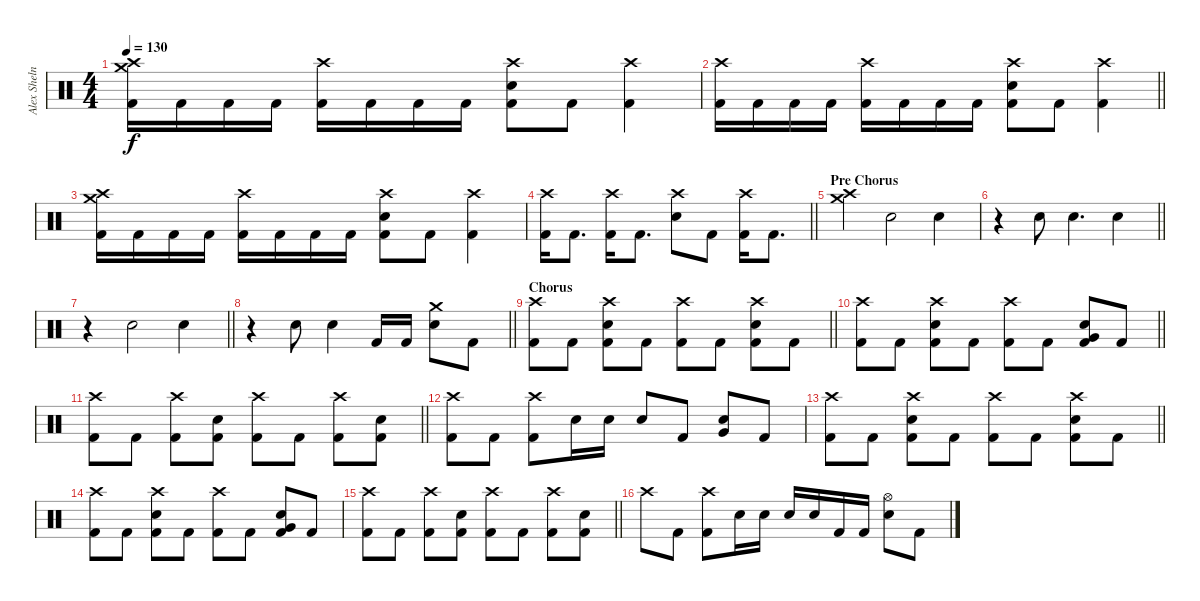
\track ("Alex Shelnutt [Drums]" "Alex Sheln") {instrument percussion}
\staff {score}
\articulation defaults
\ts (4 4)
\tempo 130
\clef neutral
\ks c
("Crash high (hit)" "Crash medium (hit)" "Kick (hit) 2").16{dy f} "Kick (hit) 2".16 "Kick (hit) 2".16 "Kick (hit) 2".16 ("Crash high (hit)" "Kick (hit) 2").16 "Kick (hit) 2".16 "Kick (hit) 2".16 "Kick (hit) 2".16 ("Crash high (hit)" "Electric Snare (hit)" "Kick (hit) 2").8 "Kick (hit) 2".8 ("Crash high (hit)" "Kick (hit) 2").4 |
\barLineRight lightlight
("Crash high (hit)" "Kick (hit) 2").16 "Kick (hit) 2".16 "Kick (hit) 2".16 "Kick (hit) 2".16 ("Crash high (hit)" "Kick (hit) 2").16 "Kick (hit) 2".16 "Kick (hit) 2".16 "Kick (hit) 2".16 ("Crash high (hit)" "Electric Snare (hit)" "Kick (hit) 2").8 "Kick (hit) 2".8 ("Crash high (hit)" "Kick (hit) 2").4 |
("Crash high (hit)" "Crash medium (hit)" "Kick (hit) 2").16 "Kick (hit) 2".16 "Kick (hit) 2".16 "Kick (hit) 2".16 ("Crash high (hit)" "Kick (hit) 2").16 "Kick (hit) 2".16 "Kick (hit) 2".16 "Kick (hit) 2".16 ("Crash high (hit)" "Electric Snare (hit)" "Kick (hit) 2").8 "Kick (hit) 2".8 ("Crash high (hit)" "Kick (hit) 2").4 |
\barLineRight lightlight
("Crash high (hit)" "Kick (hit) 2").16 "Kick (hit) 2".8{d} ("Crash high (hit)" "Kick (hit) 2").16 "Kick (hit) 2".8{d} ("Crash high (hit)" "Electric Snare (hit)").8 "Kick (hit) 2".8 ("Crash high (hit)" "Kick (hit) 2").16 "Kick (hit) 2".8{d} |
\section ("" "Pre Chorus")
("Crash high (hit)" "Crash medium (hit)").4 "Hand Clap (hit)".2 "Hand Clap (hit)".4 |
\barLineRight lightlight
r.4 "Hand Clap (hit)".8 "Hand Clap (hit)".4{d} "Hand Clap (hit)".4 |
\barLineRight lightlight
r.4 "Hand Clap (hit)".2 "Hand Clap (hit)".4 |
\barLineRight lightlight
r.4 "Hand Clap (hit)".8 "Hand Clap (hit)".4 "Kick (hit) 2".16 "Kick (hit) 2".16 ("Crash medium (hit)" "Electric Snare (hit)").8 "Kick (hit) 2".8 |
\section ("" "Chorus")
\barLineRight lightlight
("Crash high (hit)" "Kick (hit) 2").8 "Kick (hit) 2".8 ("Crash high (hit)" "Electric Snare (hit)" "Kick (hit) 2").8 "Kick (hit) 2".8 ("Crash high (hit)" "Kick (hit) 2").8 "Kick (hit) 2".8 ("Crash high (hit)" "Electric Snare (hit)" "Kick (hit) 2").8 "Kick (hit) 2".8 |
\barLineRight lightlight
("Crash high (hit)" "Kick (hit) 2").8 "Kick (hit) 2".8 ("Crash high (hit)" "Electric Snare (hit)" "Kick (hit) 2").8 "Kick (hit) 2".8 ("Crash high (hit)" "Kick (hit) 2").8 "Kick (hit) 2".8 ("Very Low Tom (hit)" "Electric Snare (hit)" "Kick (hit) 2").8 "Kick (hit) 2".8 |
\barLineRight lightlight
("Crash high (hit)" "Kick (hit) 2").8 "Kick (hit) 2".8 ("Crash high (hit)" "Kick (hit) 2").8 ("Electric Snare (hit)" "Kick (hit) 2").8 ("Crash high (hit)" "Kick (hit) 2").8 "Kick (hit) 2".8 ("Crash high (hit)" "Kick (hit) 2").8 ("Electric Snare (hit)" "Kick (hit) 2").8 |
("Crash high (hit)" "Kick (hit) 2").8 "Kick (hit) 2".8 ("Crash high (hit)" "Kick (hit) 2").8 "Electric Snare (hit)".16 "Electric Snare (hit)".16 "Electric Snare (hit)".8 "Kick (hit) 2".8 ("Very Low Tom (hit)" "Electric Snare (hit)").8 "Kick (hit) 2".8 |
\barLineRight lightlight
("Crash high (hit)" "Kick (hit) 2").8 "Kick (hit) 2".8 ("Crash high (hit)" "Electric Snare (hit)" "Kick (hit) 2").8 "Kick (hit) 2".8 ("Crash high (hit)" "Kick (hit) 2").8 "Kick (hit) 2".8 ("Crash high (hit)" "Electric Snare (hit)" "Kick (hit) 2").8 "Kick (hit) 2".8 |
("Crash high (hit)" "Kick (hit) 2").8 "Kick (hit) 2".8 ("Crash high (hit)" "Electric Snare (hit)" "Kick (hit) 2").8 "Kick (hit) 2".8 ("Crash high (hit)" "Kick (hit) 2").8 "Kick (hit) 2".8 ("Very Low Tom (hit)" "Electric Snare (hit)" "Kick (hit) 2").8 "Kick (hit) 2".8 |
\barLineRight lightlight
("Crash high (hit)" "Kick (hit) 2").8 "Kick (hit) 2".8 ("Crash high (hit)" "Kick (hit) 2").8 ("Electric Snare (hit)" "Kick (hit) 2").8 ("Crash high (hit)" "Kick (hit) 2").8 "Kick (hit) 2".8 ("Crash high (hit)" "Kick (hit) 2").8 ("Electric Snare (hit)" "Kick (hit) 2").8 |
"Crash high (hit)".8 "Kick (hit) 2".8 ("Crash high (hit)" "Kick (hit) 2").8 "Electric Snare (hit)".16 "Electric Snare (hit)".16 "Electric Snare (hit)".16 "Electric Snare (hit)".16 "Kick (hit) 2".16 "Kick (hit) 2".16 ("Hi-Hat (open)" "Electric Snare (hit)").8 "Kick (hit) 2".8
